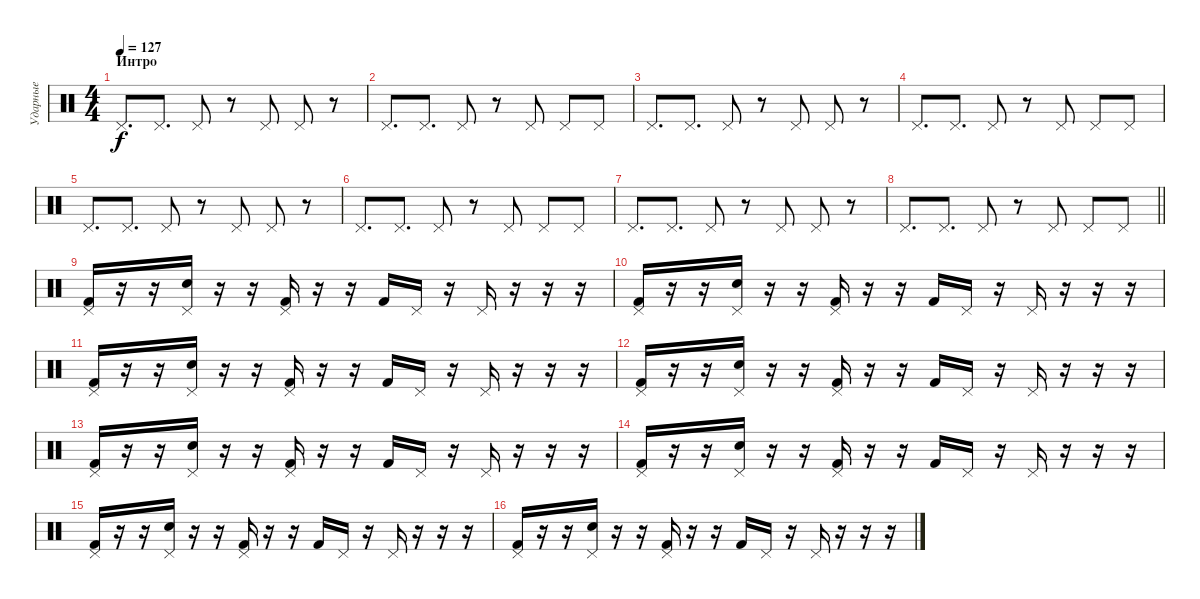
\track ("Ударные" "Ударные") {instrument percussion}
\staff {score}
\articulation defaults
\ts (4 4)
\section ("" "Интро")
\tempo 127
\clef neutral
\ks c "Pedal Hi-Hat (hit)".8{d dy f} "Pedal Hi-Hat (hit)".8{d} "Pedal Hi-Hat (hit)".8
r.8 "Pedal Hi-Hat (hit)".8 "Pedal Hi-Hat (hit)".8 r.8 |
"Pedal Hi-Hat (hit)".8{d} "Pedal Hi-Hat (hit)".8{d} "Pedal Hi-Hat (hit)".8 r.8 "Pedal Hi-Hat (hit)".8 "Pedal Hi-Hat (hit)".8 "Pedal Hi-Hat (hit)".8 |
"Pedal Hi-Hat (hit)".8{d} "Pedal Hi-Hat (hit)".8{d} "Pedal Hi-Hat (hit)".8 r.8 "Pedal Hi-Hat (hit)".8 "Pedal Hi-Hat (hit)".8 r.8 |
"Pedal Hi-Hat (hit)".8{d} "Pedal Hi-Hat (hit)".8{d} "Pedal Hi-Hat (hit)".8 r.8 "Pedal Hi-Hat (hit)".8 "Pedal Hi-Hat (hit)".8 "Pedal Hi-Hat (hit)".8 |
"Pedal Hi-Hat (hit)".8{d} "Pedal Hi-Hat (hit)".8{d} "Pedal Hi-Hat (hit)".8 r.8 "Pedal Hi-Hat (hit)".8 "Pedal Hi-Hat (hit)".8 r.8 |
"Pedal Hi-Hat (hit)".8{d} "Pedal Hi-Hat (hit)".8{d} "Pedal Hi-Hat (hit)".8 r.8 "Pedal Hi-Hat (hit)".8 "Pedal Hi-Hat (hit)".8 "Pedal Hi-Hat (hit)".8 |
"Pedal Hi-Hat (hit)".8{d} "Pedal Hi-Hat (hit)".8{d} "Pedal Hi-Hat (hit)".8 r.8 "Pedal Hi-Hat (hit)".8 "Pedal Hi-Hat (hit)".8 r.8 |
\barLineRight lightlight "Pedal Hi-Hat (hit)".8{d} "Pedal Hi-Hat (hit)".8{d} "Pedal Hi-Hat (hit)".8
r.8 "Pedal Hi-Hat (hit)".8 "Pedal Hi-Hat (hit)".8 "Pedal Hi-Hat (hit)".8 |
\section ("" "")
("Pedal Hi-Hat (hit)" "Kick (hit) 2").16 r.16 r.16 ("Pedal Hi-Hat (hit)" "Hand Clap (hit)").16 r.16 r.16 ("Pedal Hi-Hat (hit)" "Kick (hit) 2").16 r.16 r.16 "Kick (hit) 2".16 "Pedal Hi-Hat (hit)".16 r.16 "Pedal Hi-Hat (hit)".16 r.16 r.16 r.16 |
("Pedal Hi-Hat (hit)" "Kick (hit) 2").16 r.16 r.16 ("Pedal Hi-Hat (hit)" "Hand Clap (hit)").16 r.16 r.16 ("Pedal Hi-Hat (hit)" "Kick (hit) 2").16 r.16 r.16 "Kick (hit) 2".16 "Pedal Hi-Hat (hit)".16 r.16 "Pedal Hi-Hat (hit)".16 r.16 r.16 r.16 |
("Pedal Hi-Hat (hit)" "Kick (hit) 2").16 r.16 r.16 ("Pedal Hi-Hat (hit)" "Hand Clap (hit)").16 r.16 r.16 ("Pedal Hi-Hat (hit)" "Kick (hit) 2").16 r.16 r.16 "Kick (hit) 2".16 "Pedal Hi-Hat (hit)".16 r.16 "Pedal Hi-Hat (hit)".16 r.16 r.16 r.16 |
("Pedal Hi-Hat (hit)" "Kick (hit) 2").16 r.16 r.16 ("Pedal Hi-Hat (hit)" "Hand Clap (hit)").16 r.16 r.16 ("Pedal Hi-Hat (hit)" "Kick (hit) 2").16 r.16 r.16 "Kick (hit) 2".16 "Pedal Hi-Hat (hit)".16 r.16 "Pedal Hi-Hat (hit)".16 r.16 r.16 r.16 |
("Pedal Hi-Hat (hit)" "Kick (hit) 2").16 r.16 r.16 ("Pedal Hi-Hat (hit)" "Hand Clap (hit)").16 r.16 r.16 ("Pedal Hi-Hat (hit)" "Kick (hit) 2").16 r.16 r.16 "Kick (hit) 2".16 "Pedal Hi-Hat (hit)".16 r.16 "Pedal Hi-Hat (hit)".16 r.16 r.16 r.16 |
("Pedal Hi-Hat (hit)" "Kick (hit) 2").16 r.16 r.16 ("Pedal Hi-Hat (hit)" "Hand Clap (hit)").16 r.16 r.16 ("Pedal Hi-Hat (hit)" "Kick (hit) 2").16 r.16 r.16 "Kick (hit) 2".16 "Pedal Hi-Hat (hit)".16 r.16 "Pedal Hi-Hat (hit)".16 r.16 r.16 r.16 |
("Pedal Hi-Hat (hit)" "Kick (hit) 2").16 r.16 r.16 ("Pedal Hi-Hat (hit)" "Hand Clap (hit)").16 r.16 r.16 ("Pedal Hi-Hat (hit)" "Kick (hit) 2").16 r.16 r.16 "Kick (hit) 2".16 "Pedal Hi-Hat (hit)".16 r.16 "Pedal Hi-Hat (hit)".16 r.16 r.16 r.16 |
("Pedal Hi-Hat (hit)" "Kick (hit) 2").16 r.16 r.16 ("Pedal Hi-Hat (hit)" "Hand Clap (hit)").16 r.16 r.16 ("Pedal Hi-Hat (hit)" "Kick (hit) 2").16 r.16 r.16 "Kick (hit) 2".16 "Pedal Hi-Hat (hit)".16 r.16 "Pedal Hi-Hat (hit)".16 r.16 r.16 r.16
